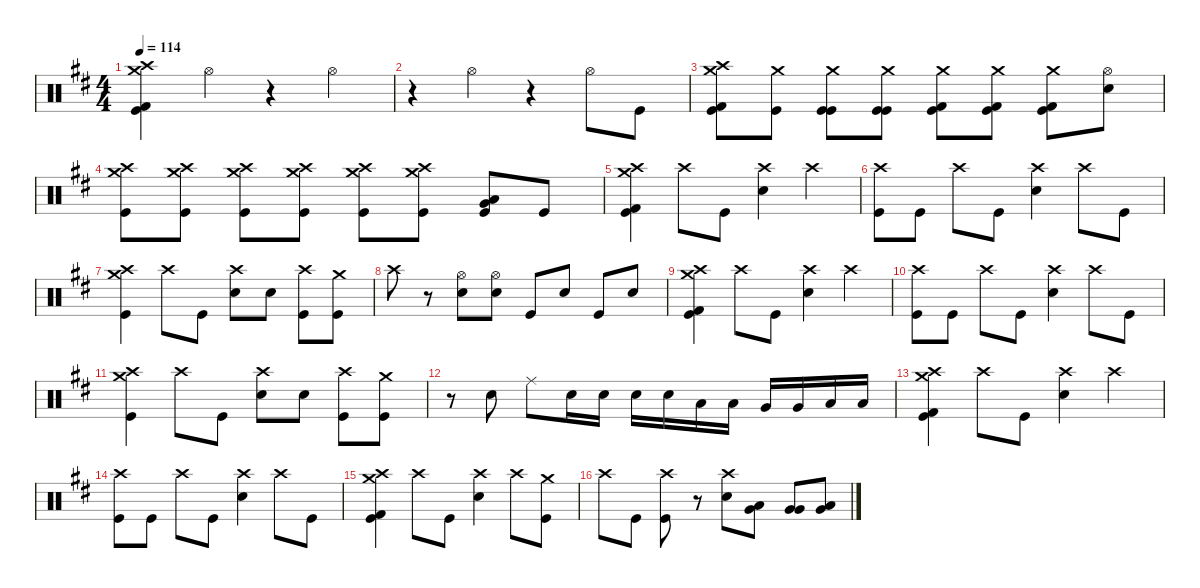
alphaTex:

\defaultSystemsLayout 4
\hideDynamics
\bracketExtendMode nobrackets
\singleTrackTrackNamePolicy hidden
\multiTrackTrackNamePolicy hidden
\firstSystemTrackNameMode fullname
\firstSystemTrackNameOrientation horizontal
\otherSystemsTrackNameOrientation horizontal
\track ("Aaron Harris" "drm.") {instrument percussion}
\staff {score}
\articulation defaults
\ts (4 4)
\tempo 114
\clef neutral
\ks bminor
("Crash medium (hit)"{acc forcenatural} "Crash high (hit)"{acc forcenatural} "Kick (hit) 2"{acc forcenatural} "Kick (hit)"{acc forcenatural}).4{dy f beam Down} "Hi-Hat (open)"{acc forcenatural}.4{beam Down} r.4{beam Down} "Hi-Hat (open)"{acc forcenatural}.4{beam Down} |
r.4{beam Down} "Hi-Hat (open)"{acc forcenatural}.4{beam Down} r.4{beam Down} "Hi-Hat (open)"{acc forcenatural}.8{beam Down} "Kick (hit)"{acc forcenatural}.8{beam Down} |
("Crash medium (hit)"{acc forcenatural} "Crash high (hit)"{acc forcenatural} "Kick (hit) 2"{acc forcenatural} "Kick (hit)"{acc forcenatural}).8{beam Down} ("Crash medium (hit)"{acc forcenatural} "Kick (hit)"{acc forcenatural}).8{dy mp beam Down} ("Crash medium (hit)"{acc forcenatural} "Kick (hit)"{acc forcenatural} "Kick (hit)"{acc forcenatural}).8{beam Down} ("Crash medium (hit)"{acc forcenatural} "Kick (hit)"{acc forcenatural} "Kick (hit)"{acc forcenatural}).8{dy mf beam Down} ("Crash medium (hit)"{acc forcenatural} "Kick (hit) 2"{acc forcenatural} "Kick (hit)"{acc forcenatural}).8{beam Down} ("Crash medium (hit)"{acc forcenatural} "Kick (hit) 2"{acc forcenatural} "Kick (hit)"{acc forcenatural}).8{beam Down} ("Crash medium (hit)"{acc forcenatural} "Kick (hit) 2"{acc forcenatural} "Kick (hit)"{acc forcenatural}).8{dy f beam Down} ("Hi-Hat (open)"{acc forcenatural} "Snare (hit) 2"{acc forcenatural}).8{beam Down} |
("Crash medium (hit)"{acc forcenatural} "Crash high (hit)"{acc forcenatural} "Kick (hit)"{acc forcenatural}).8{beam Down} ("Crash medium (hit)"{acc forcenatural} "Crash high (hit)"{acc forcenatural} "Kick (hit)"{acc forcenatural}).8{beam Down} ("Crash medium (hit)"{acc forcenatural} "Crash high (hit)"{acc forcenatural} "Kick (hit)"{acc forcenatural}).8{beam Down} ("Crash medium (hit)"{acc forcenatural} "Crash high (hit)"{acc forcenatural} "Kick (hit)"{acc forcenatural}).8{beam Down} ("Crash medium (hit)"{acc forcenatural} "Crash high (hit)"{acc forcenatural} "Kick (hit)"{acc forcenatural}).8{beam Down} ("Crash medium (hit)"{acc forcenatural} "Crash high (hit)"{acc forcenatural} "Kick (hit)"{acc forcenatural}).8{beam Down} ("Very Low Tom (hit)"{acc forcenatural} "Low Floor Tom (hit)"{acc forcenatural} "Kick (hit)"{acc forcenatural}).8{dy ff beam Up} "Kick (hit)"{acc forcenatural}.8{dy f beam Up} |
("Crash medium (hit)"{acc forcenatural} "Crash high (hit)"{acc forcenatural} "Kick (hit) 2"{acc forcenatural} "Kick (hit)"{acc forcenatural}).4{beam Down} "Crash high (hit)"{acc forcenatural}.8{beam Down} "Kick (hit)"{acc forcenatural}.8{beam Down} ("Crash high (hit)"{acc forcenatural} "Snare (hit) 2"{acc forcenatural}).4{beam Down} "Crash high (hit)"{acc forcenatural}.4{beam Down} |
("Crash high (hit)"{acc forcenatural} "Kick (hit)"{acc forcenatural}).8{beam Down} "Kick (hit)"{acc forcenatural}.8{beam Down} "Crash high (hit)"{acc forcenatural}.8{beam Down} "Kick (hit)"{acc forcenatural}.8{beam Down} ("Crash high (hit)"{acc forcenatural} "Snare (hit) 2"{acc forcenatural}).4{beam Down} "Crash high (hit)"{acc forcenatural}.8{beam Down} "Kick (hit)"{acc forcenatural}.8{beam Down} |
("Crash medium (hit)"{acc forcenatural} "Crash high (hit)"{acc forcenatural} "Kick (hit)"{acc forcenatural}).4{beam Down} "Crash high (hit)"{acc forcenatural}.8{beam Down} "Kick (hit)"{acc forcenatural}.8{beam Down} ("Crash high (hit)"{acc forcenatural} "Snare (hit) 2"{acc forcenatural}).8{beam Down} "Snare (hit) 2"{acc forcenatural}.8{beam Down} ("Crash high (hit)"{acc forcenatural} "Kick (hit)"{acc forcenatural}).8{beam Down} ("Crash medium (hit)"{acc forcenatural} "Kick (hit)"{acc forcenatural}).8{beam Down} |
"Crash high (hit)"{acc forcenatural}.8{beam Down} r.8{beam Down} ("Hi-Hat (open)"{acc forcenatural} "Snare (hit) 2"{acc forcenatural}).8{beam Down} ("Hi-Hat (open)"{acc forcenatural} "Snare (hit) 2"{acc forcenatural}).8{beam Down} "Kick (hit)"{acc forcenatural}.8{beam Up} "Snare (hit) 2"{acc forcenatural}.8{beam Up} "Kick (hit)"{acc forcenatural}.8{beam Up} "Snare (hit) 2"{acc forcenatural}.8{beam Up} |
("Crash medium (hit)"{acc forcenatural} "Crash high (hit)"{acc forcenatural} "Kick (hit) 2"{acc forcenatural} "Kick (hit)"{acc forcenatural}).4{beam Down} "Crash high (hit)"{acc forcenatural}.8{beam Down} "Kick (hit)"{acc forcenatural}.8{beam Down} ("Crash high (hit)"{acc forcenatural} "Snare (hit) 2"{acc forcenatural}).4{beam Down} "Crash high (hit)"{acc forcenatural}.4{beam Down} |
("Crash high (hit)"{acc forcenatural} "Kick (hit)"{acc forcenatural}).8{beam Down} "Kick (hit)"{acc forcenatural}.8{beam Down} "Crash high (hit)"{acc forcenatural}.8{beam Down} "Kick (hit)"{acc forcenatural}.8{beam Down} ("Crash high (hit)"{acc forcenatural} "Snare (hit) 2"{acc forcenatural}).4{beam Down} "Crash high (hit)"{acc forcenatural}.8{beam Down} "Kick (hit)"{acc forcenatural}.8{beam Down} |
("Crash medium (hit)"{acc forcenatural} "Crash high (hit)"{acc forcenatural} "Kick (hit)"{acc forcenatural}).4{beam Down} "Crash high (hit)"{acc forcenatural}.8{beam Down} "Kick (hit)"{acc forcenatural}.8{beam Down} ("Crash high (hit)"{acc forcenatural} "Snare (hit) 2"{acc forcenatural}).8{beam Down} "Snare (hit) 2"{acc forcenatural}.8{beam Down} ("Crash high (hit)"{acc forcenatural} "Kick (hit)"{acc forcenatural}).8{beam Down} ("Crash medium (hit)"{acc forcenatural} "Kick (hit)"{acc forcenatural}).8{beam Down} |
r.8{beam Down} "Snare (hit) 2"{acc forcenatural}.8{beam Down} "Ride (middle)"{acc forcenatural}.8{beam Down} "Snare (hit) 2"{acc forcenatural}.16{beam Down} "Snare (hit) 2"{acc forcenatural}.16{beam Down} "Snare (hit) 2"{acc forcenatural}.16{beam Down} "Snare (hit) 2"{acc forcenatural}.16{beam Down} "Low Tom (hit)"{acc forcenatural}.16{beam Down} "Low Tom (hit)"{acc forcenatural}.16{beam Down} "Very Low Tom (hit)"{acc forcenatural}.16{beam Up} "Very Low Tom (hit)"{acc forcenatural}.16{beam Up} "Low Floor Tom (hit)"{acc forcenatural}.16{beam Up} "Low Floor Tom (hit)"{acc forcenatural}.16{beam Up} |
("Crash medium (hit)"{acc forcenatural} "Crash high (hit)"{acc forcenatural} "Kick (hit) 2"{acc forcenatural} "Kick (hit)"{acc forcenatural}).4{beam Down} "Crash high (hit)"{acc forcenatural}.8{beam Down} "Kick (hit)"{acc forcenatural}.8{beam Down} ("Crash high (hit)"{acc forcenatural} "Snare (hit) 2"{acc forcenatural}).4{beam Down} "Crash high (hit)"{acc forcenatural}.4{beam Down} |
("Crash high (hit)"{acc forcenatural} "Kick (hit)"{acc forcenatural}).8{beam Down} "Kick (hit)"{acc forcenatural}.8{beam Down} "Crash high (hit)"{acc forcenatural}.8{beam Down} "Kick (hit)"{acc forcenatural}.8{beam Down} ("Crash high (hit)"{acc forcenatural} "Snare (hit) 2"{acc forcenatural}).4{beam Down} "Crash high (hit)"{acc forcenatural}.8{beam Down} "Kick (hit)"{acc forcenatural}.8{beam Down} |
("Crash medium (hit)"{acc forcenatural} "Crash high (hit)"{acc forcenatural} "Kick (hit) 2"{acc forcenatural} "Kick (hit)"{acc forcenatural}).4{beam Down} "Crash high (hit)"{acc forcenatural}.8{beam Down} "Kick (hit)"{acc forcenatural}.8{beam Down} ("Crash high (hit)"{acc forcenatural} "Snare (hit) 2"{acc forcenatural}).4{beam Down} "Crash high (hit)"{acc forcenatural}.8{beam Down} ("Crash medium (hit)"{acc forcenatural} "Kick (hit)"{acc forcenatural}).8{beam Down} |
"Crash high (hit)"{acc forcenatural}.8{beam Down} "Kick (hit)"{acc forcenatural}.8{beam Down} ("Crash high (hit)"{acc forcenatural} "Kick (hit)"{acc forcenatural}).8{beam Down} r.8{beam Down} ("Crash high (hit)"{acc forcenatural} "Snare (hit) 2"{acc forcenatural}).8{beam Down} ("Low Tom (hit)"{acc forcenatural} "Very Low Tom (hit)"{acc forcenatural}).8{beam Down} ("Very Low Tom (hit)"{acc forcenatural} "Very Low Tom (hit)"{acc forcenatural}).8{beam Up} ("Very Low Tom (hit)"{acc forcenatural} "Low Floor Tom (hit)"{acc forcenatural}).8{beam Up}
